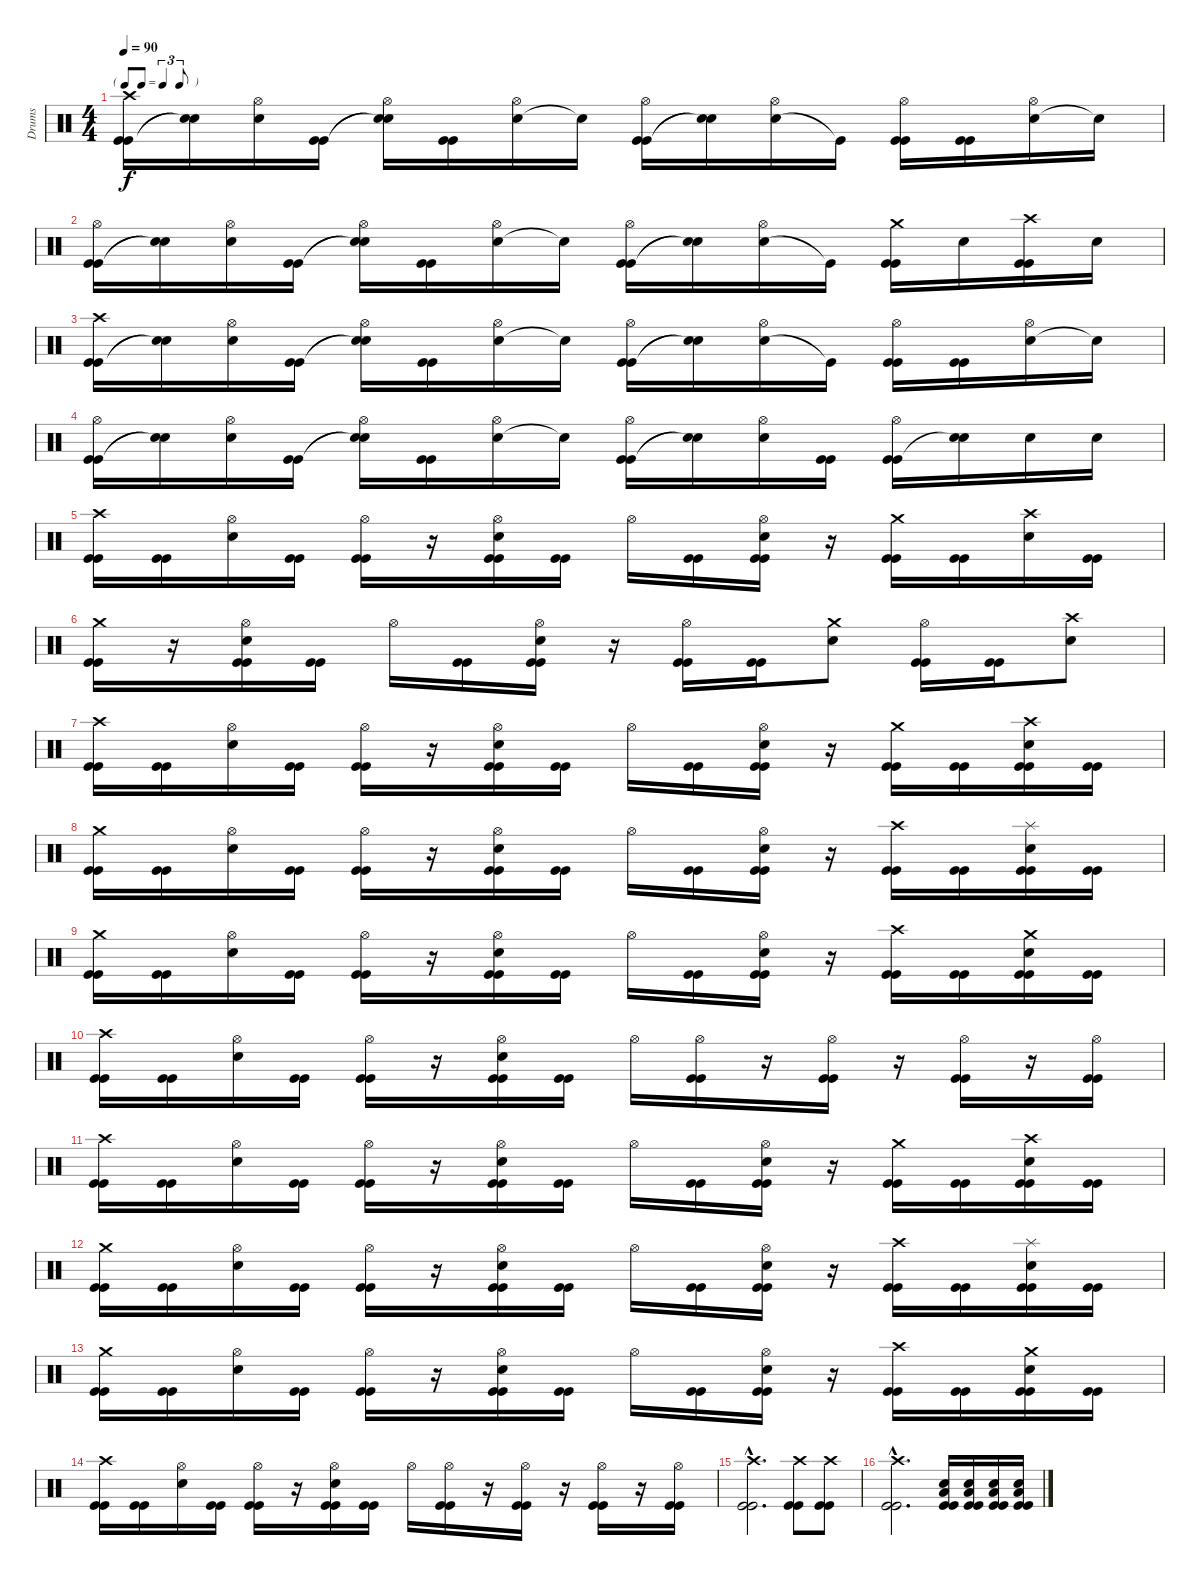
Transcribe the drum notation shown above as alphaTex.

\track ("Drums" "Drums") {instrument percussion}
\staff {score}
\articulation defaults
\ts (4 4)
\tf triplet8th
\tempo 90
\clef neutral
\ks c
("Kick (hit)" "Kick (hit)" "Crash high (hit)").16{dy f} ("Snare (hit) 2"{t} "Snare (hit)"{t}).16 ("Snare (hit) 2" "Hi-Hat (open)").16 ("Kick (hit)" "Kick (hit)").16 ("Snare (hit)"{t} "Snare (hit) 2"{t} "Hi-Hat (open)").16 ("Kick (hit)" "Kick (hit)").16 ("Snare (hit) 2" "Hi-Hat (open)").16 "Snare (hit)"{t}.16 ("Kick (hit)" "Kick (hit)" "Hi-Hat (open)").16 ("Snare (hit) 2"{t} "Snare (hit)"{t}).16 ("Snare (hit) 2" "Hi-Hat (open)").16 "Kick (hit)"{t}.16 ("Kick (hit)" "Kick (hit)" "Hi-Hat (open)").16 ("Kick (hit)" "Kick (hit)").16 ("Snare (hit) 2" "Hi-Hat (open)").16 "Snare (hit)"{t}.16 |
("Kick (hit)" "Kick (hit)" "Hi-Hat (open)").16 ("Snare (hit) 2"{t} "Snare (hit)"{t}).16 ("Snare (hit) 2" "Hi-Hat (open)").16 ("Kick (hit)" "Kick (hit)").16 ("Snare (hit)"{t} "Snare (hit) 2"{t} "Hi-Hat (open)").16 ("Kick (hit)" "Kick (hit)").16 ("Snare (hit) 2" "Hi-Hat (open)").16 "Snare (hit)"{t}.16 ("Kick (hit)" "Kick (hit)" "Hi-Hat (open)").16 ("Snare (hit) 2"{t} "Snare (hit)"{t}).16 ("Snare (hit) 2" "Hi-Hat (open)").16 "Kick (hit)"{t}.16 ("Kick (hit)" "Kick (hit)" "Crash medium (hit)").16 "Snare (hit) 2".16 ("Kick (hit)" "Kick (hit)" "Crash high (hit)").16 "Snare (hit) 2".16 |
("Kick (hit)" "Kick (hit)" "Crash high (hit)").16 ("Snare (hit) 2"{t} "Snare (hit)"{t}).16 ("Snare (hit) 2" "Hi-Hat (open)").16 ("Kick (hit)" "Kick (hit)").16 ("Snare (hit)"{t} "Snare (hit) 2"{t} "Hi-Hat (open)").16 ("Kick (hit)" "Kick (hit)").16 ("Snare (hit) 2" "Hi-Hat (open)").16 "Snare (hit)"{t}.16 ("Kick (hit)" "Kick (hit)" "Hi-Hat (open)").16 ("Snare (hit) 2"{t} "Snare (hit)"{t}).16 ("Snare (hit) 2" "Hi-Hat (open)").16 "Kick (hit)"{t}.16 ("Kick (hit)" "Kick (hit)" "Hi-Hat (open)").16 ("Kick (hit)" "Kick (hit)").16 ("Snare (hit) 2" "Hi-Hat (open)").16 "Snare (hit)"{t}.16 |
("Kick (hit)" "Kick (hit)" "Hi-Hat (open)").16 ("Snare (hit) 2"{t} "Snare (hit)"{t}).16 ("Snare (hit) 2" "Hi-Hat (open)").16 ("Kick (hit)" "Kick (hit)").16 ("Snare (hit)"{t} "Snare (hit) 2"{t} "Hi-Hat (open)").16 ("Kick (hit)" "Kick (hit)").16 ("Snare (hit) 2" "Hi-Hat (open)").16 "Snare (hit)"{t}.16 ("Kick (hit)" "Kick (hit)" "Hi-Hat (open)").16 ("Snare (hit)"{t} "Snare (hit)"{t}).16 ("Snare (hit) 2" "Hi-Hat (open)").16 ("Kick (hit)" "Kick (hit)").16 ("Kick (hit)" "Kick (hit)" "Hi-Hat (open)").16 ("Snare (hit) 2"{t} "Snare (hit) 2").16 "Snare (hit) 2".16 "Snare (hit) 2".16 |
("Kick (hit)" "Kick (hit)" "Crash high (hit)").16 ("Kick (hit)" "Kick (hit)").16 ("Snare (hit) 2" "Hi-Hat (open)").16 ("Kick (hit)" "Kick (hit)").16 ("Kick (hit)" "Kick (hit)" "Hi-Hat (open)").16 r.16 ("Kick (hit)" "Kick (hit)" "Snare (hit) 2" "Hi-Hat (open)").16 ("Kick (hit)" "Kick (hit)").16 "Hi-Hat (open)".16 ("Kick (hit)" "Kick (hit)").16 ("Kick (hit)" "Kick (hit)" "Snare (hit) 2" "Hi-Hat (open)").16 r.16 ("Kick (hit)" "Kick (hit)" "Crash medium (hit)").16 ("Kick (hit)" "Kick (hit)").16 ("Snare (hit) 2" "Crash high (hit)").16 ("Kick (hit)" "Kick (hit)").16 |
("Kick (hit)" "Kick (hit)" "Crash medium (hit)").16 r.16 ("Kick (hit)" "Kick (hit)" "Snare (hit) 2" "Hi-Hat (open)").16 ("Kick (hit)" "Kick (hit)").16 "Hi-Hat (open)".16 ("Kick (hit)" "Kick (hit)").16 ("Kick (hit)" "Kick (hit)" "Snare (hit) 2" "Hi-Hat (open)").16 r.16 ("Kick (hit)" "Kick (hit)" "Hi-Hat (open)").16 ("Kick (hit)" "Kick (hit)").16 ("Crash medium (hit)" "Snare (hit) 2").8 ("Kick (hit)" "Kick (hit)" "Hi-Hat (open)").16 ("Kick (hit)" "Kick (hit)").16 ("Crash high (hit)" "Snare (hit) 2").8 |
("Kick (hit)" "Kick (hit)" "Crash high (hit)").16 ("Kick (hit)" "Kick (hit)").16 ("Snare (hit) 2" "Hi-Hat (open)").16 ("Kick (hit)" "Kick (hit)").16 ("Kick (hit)" "Kick (hit)" "Hi-Hat (open)").16 r.16 ("Kick (hit)" "Kick (hit)" "Snare (hit) 2" "Hi-Hat (open)").16 ("Kick (hit)" "Kick (hit)").16 "Hi-Hat (open)".16 ("Kick (hit)" "Kick (hit)").16 ("Kick (hit)" "Kick (hit)" "Snare (hit) 2" "Hi-Hat (open)").16 r.16 ("Kick (hit)" "Kick (hit)" "Crash medium (hit)").16 ("Kick (hit)" "Kick (hit)").16 ("Kick (hit)" "Kick (hit)" "Snare (hit) 2" "Crash high (hit)").16 ("Kick (hit)" "Kick (hit)").16 |
("Kick (hit)" "Kick (hit)" "Crash medium (hit)").16 ("Kick (hit)" "Kick (hit)").16 ("Snare (hit) 2" "Hi-Hat (open)").16 ("Kick (hit)" "Kick (hit)").16 ("Kick (hit)" "Kick (hit)" "Hi-Hat (open)").16 r.16 ("Kick (hit)" "Kick (hit)" "Snare (hit) 2" "Hi-Hat (open)").16 ("Kick (hit)" "Kick (hit)").16 "Hi-Hat (open)".16 ("Kick (hit)" "Kick (hit)").16 ("Kick (hit)" "Kick (hit)" "Snare (hit) 2" "Hi-Hat (open)").16 r.16 ("Kick (hit)" "Kick (hit)" "Crash high (hit)").16 ("Kick (hit)" "Kick (hit)").16 ("Kick (hit)" "Kick (hit)" "Snare (hit) 2" "Splash (hit)").16 ("Kick (hit)" "Kick (hit)").16 |
("Kick (hit)" "Kick (hit)" "Crash medium (hit)").16 ("Kick (hit)" "Kick (hit)").16 ("Snare (hit) 2" "Hi-Hat (open)").16 ("Kick (hit)" "Kick (hit)").16 ("Kick (hit)" "Kick (hit)" "Hi-Hat (open)").16 r.16 ("Kick (hit)" "Kick (hit)" "Snare (hit) 2" "Hi-Hat (open)").16 ("Kick (hit)" "Kick (hit)").16 "Hi-Hat (open)".16 ("Kick (hit)" "Kick (hit)").16 ("Kick (hit)" "Kick (hit)" "Snare (hit) 2" "Hi-Hat (open)").16 r.16 ("Kick (hit)" "Kick (hit)" "Crash high (hit)").16 ("Kick (hit)" "Kick (hit)").16 ("Kick (hit)" "Kick (hit)" "Snare (hit) 2" "Crash medium (hit)").16 ("Kick (hit)" "Kick (hit)").16 |
("Kick (hit)" "Kick (hit)" "Crash high (hit)").16 ("Kick (hit)" "Kick (hit)").16 ("Snare (hit) 2" "Hi-Hat (open)").16 ("Kick (hit)" "Kick (hit)").16 ("Kick (hit)" "Kick (hit)" "Hi-Hat (open)").16 r.16 ("Kick (hit)" "Kick (hit)" "Snare (hit) 2" "Hi-Hat (open)").16 ("Kick (hit)" "Kick (hit)").16 "Hi-Hat (open)".16 ("Kick (hit)" "Hi-Hat (open)" "Kick (hit)").16 r.16 ("Kick (hit)" "Hi-Hat (open)" "Kick (hit)").16 r.16 ("Kick (hit)" "Hi-Hat (open)" "Kick (hit)").16 r.16 ("Kick (hit)" "Hi-Hat (open)" "Kick (hit)").16 |
("Kick (hit)" "Kick (hit)" "Crash high (hit)").16 ("Kick (hit)" "Kick (hit)").16 ("Snare (hit) 2" "Hi-Hat (open)").16 ("Kick (hit)" "Kick (hit)").16 ("Kick (hit)" "Kick (hit)" "Hi-Hat (open)").16 r.16 ("Kick (hit)" "Kick (hit)" "Snare (hit) 2" "Hi-Hat (open)").16 ("Kick (hit)" "Kick (hit)").16 "Hi-Hat (open)".16 ("Kick (hit)" "Kick (hit)").16 ("Kick (hit)" "Kick (hit)" "Snare (hit) 2" "Hi-Hat (open)").16 r.16 ("Kick (hit)" "Kick (hit)" "Crash medium (hit)").16 ("Kick (hit)" "Kick (hit)").16 ("Kick (hit)" "Kick (hit)" "Snare (hit) 2" "Crash high (hit)").16 ("Kick (hit)" "Kick (hit)").16 |
("Kick (hit)" "Kick (hit)" "Crash medium (hit)").16 ("Kick (hit)" "Kick (hit)").16 ("Snare (hit) 2" "Hi-Hat (open)").16 ("Kick (hit)" "Kick (hit)").16 ("Kick (hit)" "Kick (hit)" "Hi-Hat (open)").16 r.16 ("Kick (hit)" "Kick (hit)" "Snare (hit) 2" "Hi-Hat (open)").16 ("Kick (hit)" "Kick (hit)").16 "Hi-Hat (open)".16 ("Kick (hit)" "Kick (hit)").16 ("Kick (hit)" "Kick (hit)" "Snare (hit) 2" "Hi-Hat (open)").16 r.16 ("Kick (hit)" "Kick (hit)" "Crash high (hit)").16 ("Kick (hit)" "Kick (hit)").16 ("Kick (hit)" "Kick (hit)" "Snare (hit) 2" "Splash (hit)").16 ("Kick (hit)" "Kick (hit)").16 |
("Kick (hit)" "Kick (hit)" "Crash medium (hit)").16 ("Kick (hit)" "Kick (hit)").16 ("Snare (hit) 2" "Hi-Hat (open)").16 ("Kick (hit)" "Kick (hit)").16 ("Kick (hit)" "Kick (hit)" "Hi-Hat (open)").16 r.16 ("Kick (hit)" "Kick (hit)" "Snare (hit) 2" "Hi-Hat (open)").16 ("Kick (hit)" "Kick (hit)").16 "Hi-Hat (open)".16 ("Kick (hit)" "Kick (hit)").16 ("Kick (hit)" "Kick (hit)" "Snare (hit) 2" "Hi-Hat (open)").16 r.16 ("Kick (hit)" "Kick (hit)" "Crash high (hit)").16 ("Kick (hit)" "Kick (hit)").16 ("Kick (hit)" "Kick (hit)" "Snare (hit) 2" "Crash medium (hit)").16 ("Kick (hit)" "Kick (hit)").16 |
("Kick (hit)" "Kick (hit)" "Crash high (hit)").16 ("Kick (hit)" "Kick (hit)").16 ("Snare (hit) 2" "Hi-Hat (open)").16 ("Kick (hit)" "Kick (hit)").16 ("Kick (hit)" "Kick (hit)" "Hi-Hat (open)").16 r.16 ("Kick (hit)" "Kick (hit)" "Snare (hit) 2" "Hi-Hat (open)").16 ("Kick (hit)" "Kick (hit)").16 "Hi-Hat (open)".16 ("Kick (hit)" "Hi-Hat (open)" "Kick (hit)").16 r.16 ("Kick (hit)" "Hi-Hat (open)" "Kick (hit)").16 r.16 ("Kick (hit)" "Hi-Hat (open)" "Kick (hit)").16 r.16 ("Kick (hit)" "Hi-Hat (open)" "Kick (hit)").16 |
("Kick (hit)"{hac} "Kick (hit)"{hac} "Crash high (hit)"{hac}).2{d} ("Kick (hit)" "Crash high (hit)" "Kick (hit)").8 ("Kick (hit)" "Crash high (hit)" "Kick (hit)").8 |
("Kick (hit)"{hac} "Kick (hit)"{hac} "Crash high (hit)"{hac}).2{d} ("Kick (hit)" "Kick (hit)" "Snare (hit) 2" "Low Floor Tom (hit)").16 ("Kick (hit)" "Kick (hit)" "Snare (hit) 2" "Low Floor Tom (hit)").16 ("Kick (hit)" "Kick (hit)" "Snare (hit) 2" "Low Floor Tom (hit)").16 ("Kick (hit)" "Kick (hit)" "Snare (hit) 2" "Low Floor Tom (hit)").16
